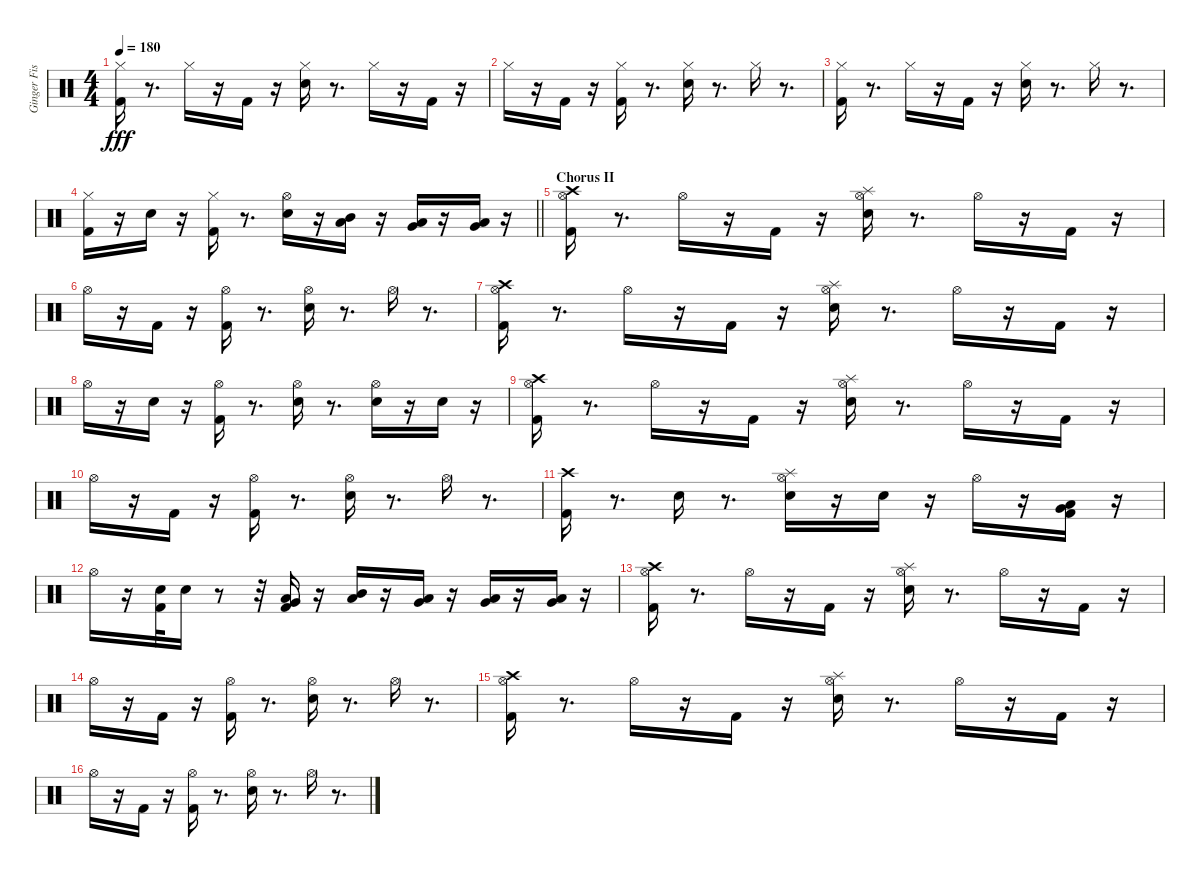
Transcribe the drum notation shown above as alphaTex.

\track ("Ginger Fish" "Ginger Fis") {instrument percussion}
\staff {score}
\articulation defaults
\ts (4 4)
\tempo 180
\clef neutral
\ks c
("Kick (hit) 2" "Hi-Hat (closed)").16{dy fff} r.8{d} "Hi-Hat (closed)".16 r.16 "Kick (hit) 2".16 r.16 ("Electric Snare (hit)" "Hi-Hat (closed)").16 r.8{d} "Hi-Hat (closed)".16 r.16 "Kick (hit) 2".16 r.16 |
"Hi-Hat (closed)".16 r.16 "Kick (hit) 2".16 r.16 ("Hi-Hat (closed)" "Kick (hit) 2").16 r.8{d} ("Hi-Hat (closed)" "Electric Snare (hit)").16 r.8{d} "Hi-Hat (closed)".16 r.8{d} |
("Kick (hit) 2" "Hi-Hat (closed)").16 r.8{d} "Hi-Hat (closed)".16 r.16 "Kick (hit) 2".16 r.16 ("Electric Snare (hit)" "Hi-Hat (closed)").16 r.8{d} "Hi-Hat (closed)".16 r.8{d} |
\barLineRight lightlight
("Hi-Hat (closed)" "Kick (hit) 2").16 r.16 "Electric Snare (hit)".16 r.16 ("Kick (hit) 2" "Hi-Hat (closed)").16 r.8{d} ("Hi-Hat (open)" "Electric Snare (hit)").16 r.16 ("Mid Tom (hit)" "Low Tom (hit)").16 r.16 ("Low Tom (hit)" "Very Low Tom (hit)").16 r.16 ("Very Low Tom (hit)" "Low Floor Tom (hit)").16 r.16 |
\section ("" "Chorus II")
("Crash high (hit)" "Kick (hit) 2" "Hi-Hat (open)").16 r.8{d} "Hi-Hat (open)".16 r.16 "Kick (hit) 2".16 r.16 ("Electric Snare (hit)" "Hi-Hat (open)" "Splash (hit)").16 r.8{d} "Hi-Hat (open)".16 r.16 "Kick (hit) 2".16 r.16 |
"Hi-Hat (open)".16 r.16 "Kick (hit) 2".16 r.16 ("Hi-Hat (open)" "Kick (hit) 2").16 r.8{d} ("Hi-Hat (open)" "Electric Snare (hit)").16 r.8{d} "Hi-Hat (open)".16 r.8{d} |
("Crash high (hit)" "Kick (hit) 2" "Hi-Hat (open)").16 r.8{d} "Hi-Hat (open)".16 r.16 "Kick (hit) 2".16 r.16 ("Splash (hit)" "Electric Snare (hit)" "Hi-Hat (open)").16 r.8{d} "Hi-Hat (open)".16 r.16 "Kick (hit) 2".16 r.16 |
"Hi-Hat (open)".16 r.16 "Electric Snare (hit)".16 r.16 ("Hi-Hat (open)" "Kick (hit) 2").16 r.8{d} ("Hi-Hat (open)" "Electric Snare (hit)").16 r.8{d} ("Hi-Hat (open)" "Electric Snare (hit)").16 r.16 "Electric Snare (hit)".16 r.16 |
("Crash high (hit)" "Kick (hit) 2" "Hi-Hat (open)").16 r.8{d} "Hi-Hat (open)".16 r.16 "Kick (hit) 2".16 r.16 ("Splash (hit)" "Electric Snare (hit)" "Hi-Hat (open)").16 r.8{d} "Hi-Hat (open)".16 r.16 "Kick (hit) 2".16 r.16 |
"Hi-Hat (open)".16 r.16 "Kick (hit) 2".16 r.16 ("Hi-Hat (open)" "Kick (hit) 2").16 r.8{d} ("Hi-Hat (open)" "Electric Snare (hit)").16 r.8{d} "Hi-Hat (open)".16 r.8{d} |
("Crash high (hit)" "Kick (hit) 2").16 r.8{d} "Electric Snare (hit)".16 r.8{d} ("Splash (hit)" "Hi-Hat (open)" "Electric Snare (hit)").16 r.16 "Electric Snare (hit)".16 r.16 "Hi-Hat (open)".16 r.16 ("Very Low Tom (hit)" "Low Floor Tom (hit)" "Kick (hit) 2").16 r.16 |
"Hi-Hat (open)".16 r.16 ("Electric Snare (hit)" "Kick (hit) 2").32 "Electric Snare (hit)".16 r.8 r.32 ("Low Tom (hit)" "Very Low Tom (hit)" "Kick (hit) 2").16 r.16 ("Low Tom (hit)" "Mid Tom (hit)").16 r.16 ("Very Low Tom (hit)" "Low Tom (hit)").16 r.16 ("Low Tom (hit)" "Very Low Tom (hit)").16 r.16 ("Very Low Tom (hit)" "Low Floor Tom (hit)").16 r.16 |
("Crash high (hit)" "Kick (hit) 2" "Hi-Hat (open)").16 r.8{d} "Hi-Hat (open)".16 r.16 "Kick (hit) 2".16 r.16 ("Splash (hit)" "Electric Snare (hit)" "Hi-Hat (open)").16 r.8{d} "Hi-Hat (open)".16 r.16 "Kick (hit) 2".16 r.16 |
"Hi-Hat (open)".16 r.16 "Kick (hit) 2".16 r.16 ("Hi-Hat (open)" "Kick (hit) 2").16 r.8{d} ("Hi-Hat (open)" "Electric Snare (hit)").16 r.8{d} "Hi-Hat (open)".16 r.8{d} |
("Crash high (hit)" "Kick (hit) 2" "Hi-Hat (open)").16 r.8{d} "Hi-Hat (open)".16 r.16 "Kick (hit) 2".16 r.16 ("Splash (hit)" "Electric Snare (hit)" "Hi-Hat (open)").16 r.8{d} "Hi-Hat (open)".16 r.16 "Kick (hit) 2".16 r.16 |
"Hi-Hat (open)".16 r.16 "Kick (hit) 2".16 r.16 ("Hi-Hat (open)" "Kick (hit) 2").16 r.8{d} ("Hi-Hat (open)" "Electric Snare (hit)").16 r.8{d} "Hi-Hat (open)".16 r.8{d}
